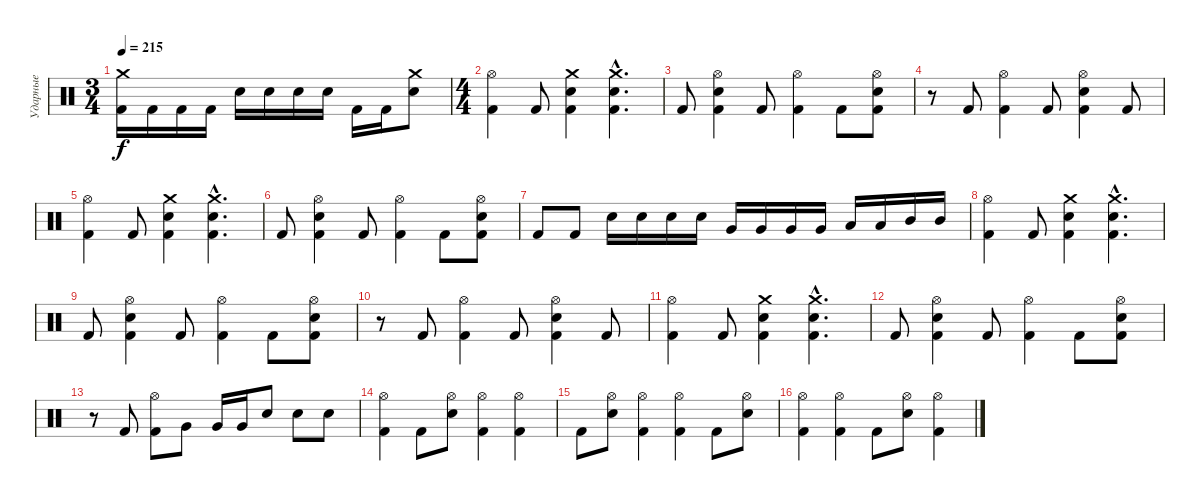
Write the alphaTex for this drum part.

\track ("Ударные" "Ударные") {instrument percussion}
\staff {score}
\articulation defaults
\ts (3 4)
\tempo 215
\clef neutral
\ks c
("Crash medium (hit)" "Kick (hit) 2").16{dy f} "Kick (hit) 2".16 "Kick (hit) 2".16 "Kick (hit) 2".16 "Snare (hit) 2".16 "Snare (hit) 2".16 "Snare (hit) 2".16 "Snare (hit) 2".16 "Kick (hit) 2".16 "Kick (hit) 2".16 ("Crash medium (hit)" "Snare (hit) 2").8 |
\ts (4 4)
("Hi-Hat (open)" "Kick (hit) 2").4 "Kick (hit) 2".8 ("Crash medium (hit)" "Snare (hit) 2" "Kick (hit) 2").4 ("Crash medium (hit)"{hac} "Snare (hit) 2"{hac} "Kick (hit) 2"{hac}).4{d} |
"Kick (hit) 2".8 ("Hi-Hat (open)" "Snare (hit) 2" "Kick (hit) 2").4 "Kick (hit) 2".8 ("Hi-Hat (open)" "Kick (hit) 2").4 "Kick (hit) 2".8 ("Hi-Hat (open)" "Snare (hit) 2" "Kick (hit) 2").8 |
r.8 "Kick (hit) 2".8 ("Hi-Hat (open)" "Kick (hit) 2").4 "Kick (hit) 2".8 ("Hi-Hat (open)" "Snare (hit) 2" "Kick (hit) 2").4 "Kick (hit) 2".8 |
("Hi-Hat (open)" "Kick (hit) 2").4 "Kick (hit) 2".8 ("Crash medium (hit)" "Snare (hit) 2" "Kick (hit) 2").4 ("Crash medium (hit)"{hac} "Snare (hit) 2"{hac} "Kick (hit) 2"{hac}).4{d} |
"Kick (hit) 2".8 ("Hi-Hat (open)" "Snare (hit) 2" "Kick (hit) 2").4 "Kick (hit) 2".8 ("Hi-Hat (open)" "Kick (hit) 2").4 "Kick (hit) 2".8 ("Hi-Hat (open)" "Snare (hit) 2" "Kick (hit) 2").8 |
"Kick (hit) 2".8 "Kick (hit) 2".8 "Snare (hit) 2".16 "Snare (hit) 2".16 "Snare (hit) 2".16 "Snare (hit) 2".16 "Very Low Tom (hit)".16 "Very Low Tom (hit)".16 "Very Low Tom (hit)".16 "Very Low Tom (hit)".16 "Low Tom (hit)".16 "Low Tom (hit)".16 "Mid Tom (hit)".16 "Mid Tom (hit)".16 |
("Hi-Hat (open)" "Kick (hit) 2").4 "Kick (hit) 2".8 ("Crash medium (hit)" "Snare (hit) 2" "Kick (hit) 2").4 ("Crash medium (hit)"{hac} "Snare (hit) 2"{hac} "Kick (hit) 2"{hac}).4{d} |
"Kick (hit) 2".8 ("Hi-Hat (open)" "Snare (hit) 2" "Kick (hit) 2").4 "Kick (hit) 2".8 ("Hi-Hat (open)" "Kick (hit) 2").4 "Kick (hit) 2".8 ("Hi-Hat (open)" "Snare (hit) 2" "Kick (hit) 2").8 |
r.8 "Kick (hit) 2".8 ("Hi-Hat (open)" "Kick (hit) 2").4 "Kick (hit) 2".8 ("Hi-Hat (open)" "Snare (hit) 2" "Kick (hit) 2").4 "Kick (hit) 2".8 |
("Hi-Hat (open)" "Kick (hit) 2").4 "Kick (hit) 2".8 ("Crash medium (hit)" "Snare (hit) 2" "Kick (hit) 2").4 ("Crash medium (hit)"{hac} "Snare (hit) 2"{hac} "Kick (hit) 2"{hac}).4{d} |
"Kick (hit) 2".8 ("Hi-Hat (open)" "Snare (hit) 2" "Kick (hit) 2").4 "Kick (hit) 2".8 ("Hi-Hat (open)" "Kick (hit) 2").4 "Kick (hit) 2".8 ("Hi-Hat (open)" "Snare (hit) 2" "Kick (hit) 2").8 |
r.8 "Kick (hit) 2".8 ("Hi-Hat (open)" "Kick (hit) 2").8 "Very Low Tom (hit)".8 "Very Low Tom (hit)".16 "Very Low Tom (hit)".16 "Snare (hit) 2".8 "Snare (hit) 2".8 "Snare (hit) 2".8 |
("Hi-Hat (open)" "Kick (hit) 2").4 "Kick (hit) 2".8 ("Hi-Hat (open)" "Snare (hit) 2").8 ("Hi-Hat (open)" "Kick (hit) 2").4 ("Hi-Hat (open)" "Kick (hit) 2").4 |
"Kick (hit) 2".8 ("Hi-Hat (open)" "Snare (hit) 2").8 ("Hi-Hat (open)" "Kick (hit) 2").4 ("Hi-Hat (open)" "Kick (hit) 2").4 "Kick (hit) 2".8 ("Hi-Hat (open)" "Snare (hit) 2").8 |
("Hi-Hat (open)" "Kick (hit) 2").4 ("Hi-Hat (open)" "Kick (hit) 2").4 "Kick (hit) 2".8 ("Hi-Hat (open)" "Snare (hit) 2").8 ("Hi-Hat (open)" "Kick (hit) 2").4
